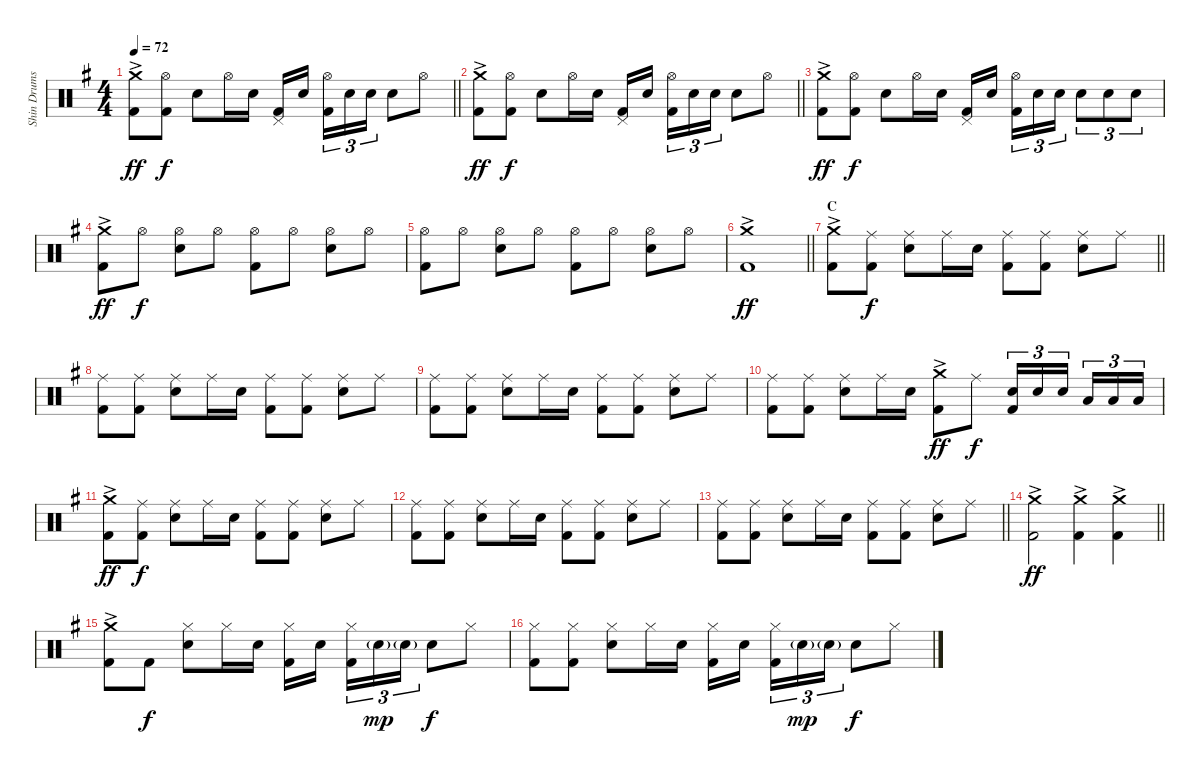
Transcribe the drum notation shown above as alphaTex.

\track ("Shin Drums" "Shin Drums") {instrument percussion}
\staff {score}
\articulation defaults
\ts (4 4)
\tempo 72
\clef neutral
\barLineRight lightlight
\ks g
("Crash medium (hit)"{ac} "Kick (hit) 2"{ac}).8{dy ff} ("Hi-Hat (open)" "Kick (hit) 2").8{dy f} "Snare (hit) 2".8 "Hi-Hat (open)".16 "Snare (hit) 2".16 ("Pedal Hi-Hat (hit)" "Kick (hit) 2").16 "Snare (hit) 2".16{beam splitsecondary} ("Hi-Hat (open)" "Kick (hit) 2").16{tu (3 2)} "Snare (hit) 2".16{tu (3 2)} "Snare (hit) 2".16{tu (3 2)} "Snare (hit) 2".8 "Hi-Hat (open)".8 |
\section ("" "")
\barLineRight lightlight
("Crash medium (hit)"{ac} "Kick (hit) 2"{ac}).8{dy ff} ("Hi-Hat (open)" "Kick (hit) 2").8{dy f} "Snare (hit) 2".8 "Hi-Hat (open)".16 "Snare (hit) 2".16 ("Pedal Hi-Hat (hit)" "Kick (hit) 2").16 "Snare (hit) 2".16{beam splitsecondary} ("Hi-Hat (open)" "Kick (hit) 2").16{tu (3 2)} "Snare (hit) 2".16{tu (3 2)} "Snare (hit) 2".16{tu (3 2)} "Snare (hit) 2".8 "Hi-Hat (open)".8 |
("Crash medium (hit)"{ac} "Kick (hit) 2"{ac}).8{dy ff} ("Hi-Hat (open)" "Kick (hit) 2").8{dy f} "Snare (hit) 2".8 "Hi-Hat (open)".16 "Snare (hit) 2".16 ("Pedal Hi-Hat (hit)" "Kick (hit) 2").16 "Snare (hit) 2".16{beam splitsecondary} ("Hi-Hat (open)" "Kick (hit) 2").16{tu (3 2)} "Snare (hit) 2".16{tu (3 2)} "Snare (hit) 2".16{tu (3 2)} "Snare (hit) 2".8{tu (3 2)} "Snare (hit) 2".8{tu (3 2)} "Snare (hit) 2".8{tu (3 2)} |
("Crash medium (hit)"{ac} "Kick (hit) 2"{ac}).8{dy ff} "Hi-Hat (open)".8{dy f} ("Hi-Hat (open)" "Snare (hit) 2").8 "Hi-Hat (open)".8 ("Hi-Hat (open)" "Kick (hit) 2").8 "Hi-Hat (open)".8 ("Hi-Hat (open)" "Snare (hit) 2").8 "Hi-Hat (open)".8 |
("Hi-Hat (open)" "Kick (hit) 2").8 "Hi-Hat (open)".8 ("Hi-Hat (open)" "Snare (hit) 2").8 "Hi-Hat (open)".8 ("Hi-Hat (open)" "Kick (hit) 2").8 "Hi-Hat (open)".8 ("Hi-Hat (open)" "Snare (hit) 2").8 "Hi-Hat (open)".8 |
\barLineRight lightlight
("Crash medium (hit)"{ac} "Kick (hit) 2"{ac}).1{dy ff} |
\section ("" "C")
\barLineRight lightlight
("Crash medium (hit)"{ac} "Kick (hit) 2"{ac}).8 ("Ride (middle)" "Kick (hit) 2").8{dy f} ("Ride (middle)" "Snare (hit) 2").8 "Ride (middle)".16 "Snare (hit) 2".16 ("Ride (middle)" "Kick (hit) 2").8 ("Ride (middle)" "Kick (hit) 2").8 ("Ride (middle)" "Snare (hit) 2").8 "Ride (middle)".8 |
\section ("" "")
("Ride (middle)" "Kick (hit) 2").8 ("Ride (middle)" "Kick (hit) 2").8 ("Ride (middle)" "Snare (hit) 2").8 "Ride (middle)".16 "Snare (hit) 2".16 ("Ride (middle)" "Kick (hit) 2").8 ("Ride (middle)" "Kick (hit) 2").8 ("Ride (middle)" "Snare (hit) 2").8 "Ride (middle)".8 |
("Ride (middle)" "Kick (hit) 2").8 ("Ride (middle)" "Kick (hit) 2").8 ("Ride (middle)" "Snare (hit) 2").8 "Ride (middle)".16 "Snare (hit) 2".16 ("Ride (middle)" "Kick (hit) 2").8 ("Ride (middle)" "Kick (hit) 2").8 ("Ride (middle)" "Snare (hit) 2").8 "Ride (middle)".8 |
("Ride (middle)" "Kick (hit) 2").8 ("Ride (middle)" "Kick (hit) 2").8 ("Ride (middle)" "Snare (hit) 2").8 "Ride (middle)".16 "Snare (hit) 2".16 ("Crash medium (hit)"{ac} "Kick (hit) 2"{ac}).8{dy ff} "Ride (middle)".8{dy f} ("Snare (hit) 2" "Kick (hit) 2").16{tu (3 2)} "Snare (hit) 2".16{tu (3 2)} "Snare (hit) 2".16{tu (3 2) beam splitsecondary} "Low Tom (hit)".16{tu (3 2)} "Low Tom (hit)".16{tu (3 2)} "Low Tom (hit)".16{tu (3 2)} |
("Crash medium (hit)"{ac} "Kick (hit) 2"{ac}).8{dy ff} ("Ride (middle)" "Kick (hit) 2").8{dy f} ("Ride (middle)" "Snare (hit) 2").8 "Ride (middle)".16 "Snare (hit) 2".16 ("Ride (middle)" "Kick (hit) 2").8 ("Ride (middle)" "Kick (hit) 2").8 ("Ride (middle)" "Snare (hit) 2").8 "Ride (middle)".8 |
("Ride (middle)" "Kick (hit) 2").8 ("Ride (middle)" "Kick (hit) 2").8 ("Ride (middle)" "Snare (hit) 2").8 "Ride (middle)".16 "Snare (hit) 2".16 ("Ride (middle)" "Kick (hit) 2").8 ("Ride (middle)" "Kick (hit) 2").8 ("Ride (middle)" "Snare (hit) 2").8 "Ride (middle)".8 |
\barLineRight lightlight
("Ride (middle)" "Kick (hit) 2").8 ("Ride (middle)" "Kick (hit) 2").8 ("Ride (middle)" "Snare (hit) 2").8 "Ride (middle)".16 "Snare (hit) 2".16 ("Ride (middle)" "Kick (hit) 2").8 ("Ride (middle)" "Kick (hit) 2").8 ("Ride (middle)" "Snare (hit) 2").8 "Ride (middle)".8 |
\section ("" "")
\barLineRight lightlight
("Crash medium (hit)"{ac} "Kick (hit) 2"{ac}).2{dy ff} ("Crash medium (hit)"{ac} "Kick (hit) 2"{ac}).4 ("Crash medium (hit)"{ac} "Kick (hit) 2"{ac}).4 |
\section ("" "")
("Crash medium (hit)"{ac} "Kick (hit) 2"{ac}).8 "Kick (hit) 2".8{dy f} ("Hi-Hat (closed)" "Snare (hit) 2").8 "Hi-Hat (closed)".16 "Snare (hit) 2".16 ("Hi-Hat (closed)" "Kick (hit) 2").16 "Snare (hit) 2".16{beam splitsecondary} ("Hi-Hat (closed)" "Kick (hit) 2").16{tu (3 2)} "Snare (hit) 2"{g}.16{tu (3 2) dy mp} "Snare (hit) 2"{g}.16{tu (3 2)} "Snare (hit) 2".8{dy f} "Hi-Hat (closed)".8 |
("Hi-Hat (closed)" "Kick (hit) 2").8 ("Hi-Hat (closed)" "Kick (hit) 2").8 ("Hi-Hat (closed)" "Snare (hit) 2").8 "Hi-Hat (closed)".16 "Snare (hit) 2".16 ("Hi-Hat (closed)" "Kick (hit) 2").16 "Snare (hit) 2".16{beam splitsecondary} ("Hi-Hat (closed)" "Kick (hit) 2").16{tu (3 2)} "Snare (hit) 2"{g}.16{tu (3 2) dy mp} "Snare (hit) 2"{g}.16{tu (3 2)} "Snare (hit) 2".8{dy f} "Hi-Hat (closed)".8
